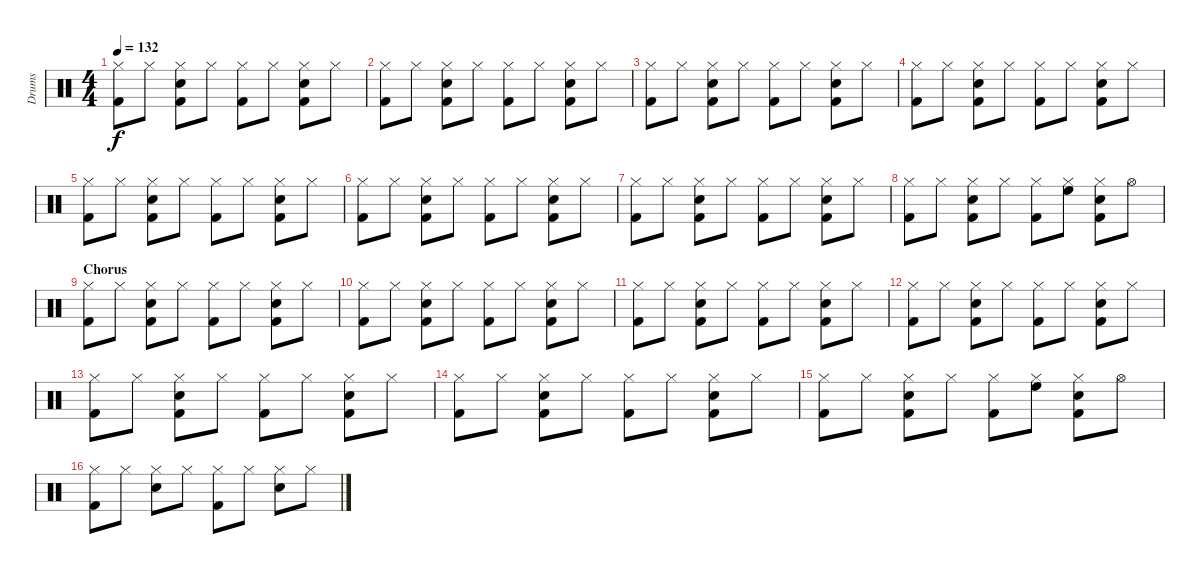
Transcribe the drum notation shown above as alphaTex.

\track ("Drums" "Drums") {instrument percussion}
\staff {score}
\articulation defaults
\ts (4 4)
\tempo 132
\clef neutral
\ks c
("Hi-Hat (closed)" "Kick (hit) 2").8{dy f} "Hi-Hat (closed)".8 ("Hi-Hat (closed)" "Snare (hit) 2" "Kick (hit) 2").8 "Hi-Hat (closed)".8 ("Hi-Hat (closed)" "Kick (hit) 2").8 "Hi-Hat (closed)".8 ("Hi-Hat (closed)" "Snare (hit) 2" "Kick (hit) 2").8 "Hi-Hat (closed)".8 |
("Hi-Hat (closed)" "Kick (hit) 2").8 "Hi-Hat (closed)".8 ("Hi-Hat (closed)" "Snare (hit) 2" "Kick (hit) 2").8 "Hi-Hat (closed)".8 ("Hi-Hat (closed)" "Kick (hit) 2").8 "Hi-Hat (closed)".8 ("Hi-Hat (closed)" "Snare (hit) 2" "Kick (hit) 2").8 "Hi-Hat (closed)".8 |
("Hi-Hat (closed)" "Kick (hit) 2").8 "Hi-Hat (closed)".8 ("Hi-Hat (closed)" "Snare (hit) 2" "Kick (hit) 2").8 "Hi-Hat (closed)".8 ("Hi-Hat (closed)" "Kick (hit) 2").8 "Hi-Hat (closed)".8 ("Hi-Hat (closed)" "Snare (hit) 2" "Kick (hit) 2").8 "Hi-Hat (closed)".8 |
("Hi-Hat (closed)" "Kick (hit) 2").8 "Hi-Hat (closed)".8 ("Hi-Hat (closed)" "Snare (hit) 2" "Kick (hit) 2").8 "Hi-Hat (closed)".8 ("Hi-Hat (closed)" "Kick (hit) 2").8 "Hi-Hat (closed)".8 ("Hi-Hat (closed)" "Snare (hit) 2" "Kick (hit) 2").8 "Hi-Hat (closed)".8 |
("Hi-Hat (closed)" "Kick (hit) 2").8 "Hi-Hat (closed)".8 ("Hi-Hat (closed)" "Snare (hit) 2" "Kick (hit) 2").8 "Hi-Hat (closed)".8 ("Hi-Hat (closed)" "Kick (hit) 2").8 "Hi-Hat (closed)".8 ("Hi-Hat (closed)" "Snare (hit) 2" "Kick (hit) 2").8 "Hi-Hat (closed)".8 |
("Hi-Hat (closed)" "Kick (hit) 2").8 "Hi-Hat (closed)".8 ("Hi-Hat (closed)" "Snare (hit) 2" "Kick (hit) 2").8 "Hi-Hat (closed)".8 ("Hi-Hat (closed)" "Kick (hit) 2").8 "Hi-Hat (closed)".8 ("Hi-Hat (closed)" "Snare (hit) 2" "Kick (hit) 2").8 "Hi-Hat (closed)".8 |
("Hi-Hat (closed)" "Kick (hit) 2").8 "Hi-Hat (closed)".8 ("Hi-Hat (closed)" "Snare (hit) 2" "Kick (hit) 2").8 "Hi-Hat (closed)".8 ("Hi-Hat (closed)" "Kick (hit) 2").8 "Hi-Hat (closed)".8 ("Hi-Hat (closed)" "Snare (hit) 2" "Kick (hit) 2").8 "Hi-Hat (closed)".8 |
("Hi-Hat (closed)" "Kick (hit) 2").8 "Hi-Hat (closed)".8 ("Hi-Hat (closed)" "Snare (hit) 2" "Kick (hit) 2").8 "Hi-Hat (closed)".8 ("Hi-Hat (closed)" "Kick (hit) 2").8 ("Hi-Hat (closed)" "High Floor Tom (hit)").8 ("Hi-Hat (closed)" "Snare (hit) 2" "Kick (hit) 2").8 "Hi-Hat (open)".8 |
\section ("" "Chorus")
("Hi-Hat (closed)" "Kick (hit) 2").8 "Hi-Hat (closed)".8 ("Hi-Hat (closed)" "Snare (hit) 2" "Kick (hit) 2").8 "Hi-Hat (closed)".8 ("Hi-Hat (closed)" "Kick (hit) 2").8 "Hi-Hat (closed)".8 ("Hi-Hat (closed)" "Snare (hit) 2" "Kick (hit) 2").8 "Hi-Hat (closed)".8 |
("Hi-Hat (closed)" "Kick (hit) 2").8 "Hi-Hat (closed)".8 ("Hi-Hat (closed)" "Snare (hit) 2" "Kick (hit) 2").8 "Hi-Hat (closed)".8 ("Hi-Hat (closed)" "Kick (hit) 2").8 "Hi-Hat (closed)".8 ("Hi-Hat (closed)" "Snare (hit) 2" "Kick (hit) 2").8 "Hi-Hat (closed)".8 |
("Hi-Hat (closed)" "Kick (hit) 2").8 "Hi-Hat (closed)".8 ("Hi-Hat (closed)" "Snare (hit) 2" "Kick (hit) 2").8 "Hi-Hat (closed)".8 ("Hi-Hat (closed)" "Kick (hit) 2").8 "Hi-Hat (closed)".8 ("Hi-Hat (closed)" "Snare (hit) 2" "Kick (hit) 2").8 "Hi-Hat (closed)".8 |
("Hi-Hat (closed)" "Kick (hit) 2").8 "Hi-Hat (closed)".8 ("Hi-Hat (closed)" "Snare (hit) 2" "Kick (hit) 2").8 "Hi-Hat (closed)".8 ("Hi-Hat (closed)" "Kick (hit) 2").8 "Hi-Hat (closed)".8 ("Hi-Hat (closed)" "Snare (hit) 2" "Kick (hit) 2").8 "Hi-Hat (closed)".8 |
("Hi-Hat (closed)" "Kick (hit) 2").8 "Hi-Hat (closed)".8 ("Hi-Hat (closed)" "Snare (hit) 2" "Kick (hit) 2").8 "Hi-Hat (closed)".8 ("Hi-Hat (closed)" "Kick (hit) 2").8 "Hi-Hat (closed)".8 ("Hi-Hat (closed)" "Snare (hit) 2" "Kick (hit) 2").8 "Hi-Hat (closed)".8 |
("Hi-Hat (closed)" "Kick (hit) 2").8 "Hi-Hat (closed)".8 ("Hi-Hat (closed)" "Snare (hit) 2" "Kick (hit) 2").8 "Hi-Hat (closed)".8 ("Hi-Hat (closed)" "Kick (hit) 2").8 "Hi-Hat (closed)".8 ("Hi-Hat (closed)" "Snare (hit) 2" "Kick (hit) 2").8 "Hi-Hat (closed)".8 |
("Hi-Hat (closed)" "Kick (hit) 2").8 "Hi-Hat (closed)".8 ("Hi-Hat (closed)" "Snare (hit) 2" "Kick (hit) 2").8 "Hi-Hat (closed)".8 ("Hi-Hat (closed)" "Kick (hit) 2").8 ("Hi-Hat (closed)" "High Floor Tom (hit)").8 ("Hi-Hat (closed)" "Snare (hit) 2" "Kick (hit) 2").8 "Hi-Hat (open)".8 |
("Hi-Hat (closed)" "Kick (hit) 2").8 "Hi-Hat (closed)".8 ("Hi-Hat (closed)" "Snare (hit) 2").8 "Hi-Hat (closed)".8 ("Hi-Hat (closed)" "Kick (hit) 2").8 "Hi-Hat (closed)".8 ("Hi-Hat (closed)" "Snare (hit) 2").8 "Hi-Hat (closed)".8
